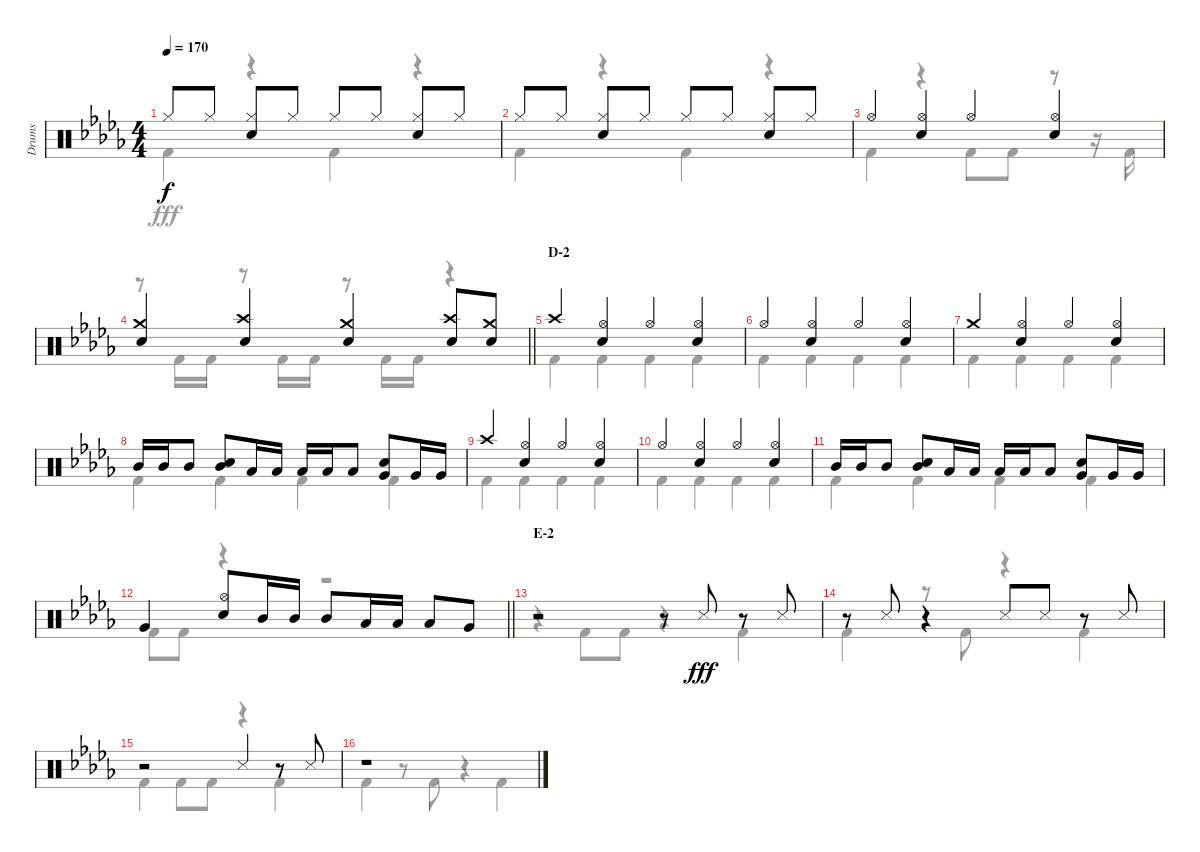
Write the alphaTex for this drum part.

\track ("Drums" "Drums") {instrument percussion}
\staff {score}
\articulation defaults
\voice
\ts (4 4)
\tempo 170
\clef neutral
\ks db "Hi-Hat (closed)".8{dy f} "Hi-Hat (closed)".8
("Hi-Hat (closed)" "Snare (hit) 2").8 "Hi-Hat (closed)".8 "Hi-Hat (closed)".8 "Hi-Hat (closed)".8 ("Hi-Hat (closed)" "Snare (hit) 2").8 "Hi-Hat (closed)".8 |
"Hi-Hat (closed)".8 "Hi-Hat (closed)".8 ("Hi-Hat (closed)" "Snare (hit) 2").8 "Hi-Hat (closed)".8 "Hi-Hat (closed)".8 "Hi-Hat (closed)".8 ("Hi-Hat (closed)" "Snare (hit) 2").8 "Hi-Hat (closed)".8 |
"Hi-Hat (open)".4 ("Hi-Hat (open)" "Snare (hit) 2").4 "Hi-Hat (open)".4 ("Hi-Hat (open)" "Snare (hit) 2").4 |
\barLineRight lightlight
("Crash medium (hit)" "Snare (hit) 2").4 ("Crash high (hit)" "Snare (hit) 2").4 ("Crash medium (hit)" "Snare (hit) 2").4 ("Crash high (hit)" "Snare (hit) 2").8 ("Crash medium (hit)" "Snare (hit) 2").8 |
\section ("" "D-2")
"Crash high (hit)".4 ("Hi-Hat (open)" "Snare (hit) 2").4 "Hi-Hat (open)".4 ("Hi-Hat (open)" "Snare (hit) 2").4 |
"Hi-Hat (open)".4 ("Hi-Hat (open)" "Snare (hit) 2").4 "Hi-Hat (open)".4 ("Hi-Hat (open)" "Snare (hit) 2").4 |
"Crash medium (hit)".4 ("Hi-Hat (open)" "Snare (hit) 2").4 "Hi-Hat (open)".4 ("Hi-Hat (open)" "Snare (hit) 2").4 |
"Mid Tom (hit)".16 "Mid Tom (hit)".16 "Mid Tom (hit)".8 ("Mid Tom (hit)" "Snare (hit) 2").8 "Low Tom (hit)".16 "Low Tom (hit)".16 "Low Tom (hit)".16 "Low Tom (hit)".16 "Low Tom (hit)".8 ("Snare (hit) 2" "Very Low Tom (hit)").8 "Very Low Tom (hit)".16 "Very Low Tom (hit)".16 |
"Crash high (hit)".4 ("Hi-Hat (open)" "Snare (hit) 2").4 "Hi-Hat (open)".4 ("Hi-Hat (open)" "Snare (hit) 2").4 |
"Hi-Hat (open)".4 ("Hi-Hat (open)" "Snare (hit) 2").4 "Hi-Hat (open)".4 ("Hi-Hat (open)" "Snare (hit) 2").4 |
"Mid Tom (hit)".16 "Mid Tom (hit)".16 "Mid Tom (hit)".8 ("Mid Tom (hit)" "Snare (hit) 2").8 "Low Tom (hit)".16 "Low Tom (hit)".16 "Low Tom (hit)".16 "Low Tom (hit)".16 "Low Tom (hit)".8 ("Snare (hit) 2" "Very Low Tom (hit)").8 "Very Low Tom (hit)".16 "Very Low Tom (hit)".16 |
\barLineRight lightlight "Very Low Tom (hit)".4
("Hi-Hat (open)" "Snare (hit) 2").8 "Mid Tom (hit)".16 "Mid Tom (hit)".16 "Mid Tom (hit)".8 "Low Tom (hit)".16 "Low Tom (hit)".16 "Low Tom (hit)".8 "Very Low Tom (hit)".8 |
\section ("" "E-2")
r.2 r.8 "Snare (side stick) 3".8{dy fff} r.8 "Snare (side stick) 3".8 |
r.8 "Snare (side stick) 3".8 r.4 "Snare (side stick) 3".8 "Snare (side stick) 3".8 r.8 "Snare (side stick) 3".8 |
r.2 "Snare (side stick) 3".4 r.8 "Snare (side stick) 3".8 |
r.1
\voice
\clef neutral
\ottava regular
\simile none
\ks db "Kick (hit) 2".4{dy fff}
r.4 "Kick (hit) 2".4 r.4 |
"Kick (hit) 2".4 r.4 "Kick (hit) 2".4 r.4 |
"Kick (hit) 2".4 r.4 "Kick (hit) 2".8 "Kick (hit) 2".8 r.8 r.16 "Kick (hit) 2".16 |
\barLineRight lightlight
r.8 "Kick (hit) 2".16 "Kick (hit) 2".16 r.8 "Kick (hit) 2".16 "Kick (hit) 2".16 r.8 "Kick (hit) 2".16 "Kick (hit) 2".16 r.4 |
"Kick (hit) 2".4 "Kick (hit) 2".4 "Kick (hit) 2".4 "Kick (hit) 2".4 |
"Kick (hit) 2".4 "Kick (hit) 2".4 "Kick (hit) 2".4 "Kick (hit) 2".4 |
"Kick (hit) 2".4 "Kick (hit) 2".4 "Kick (hit) 2".4 "Kick (hit) 2".4 |
"Kick (hit) 2".4 "Kick (hit) 2".4 "Kick (hit) 2".4 "Kick (hit) 2".4 |
"Kick (hit) 2".4 "Kick (hit) 2".4 "Kick (hit) 2".4 "Kick (hit) 2".4 |
"Kick (hit) 2".4 "Kick (hit) 2".4 "Kick (hit) 2".4 "Kick (hit) 2".4 |
"Kick (hit) 2".4 "Kick (hit) 2".4 "Kick (hit) 2".4 "Kick (hit) 2".4 |
\barLineRight lightlight "Kick (hit) 2".8 "Kick (hit) 2".8
r.4 r.2 |
r.4 "Kick (hit) 2".8 "Kick (hit) 2".8 r.4 "Kick (hit) 2".4 |
"Kick (hit) 2".4 r.8 "Kick (hit) 2".8 r.4 "Kick (hit) 2".4 |
"Kick (hit) 2".4 "Kick (hit) 2".8 "Kick (hit) 2".8 r.4 "Kick (hit) 2".4 |
"Kick (hit) 2".4 r.8 "Kick (hit) 2".8 r.4 "Kick (hit) 2".4
